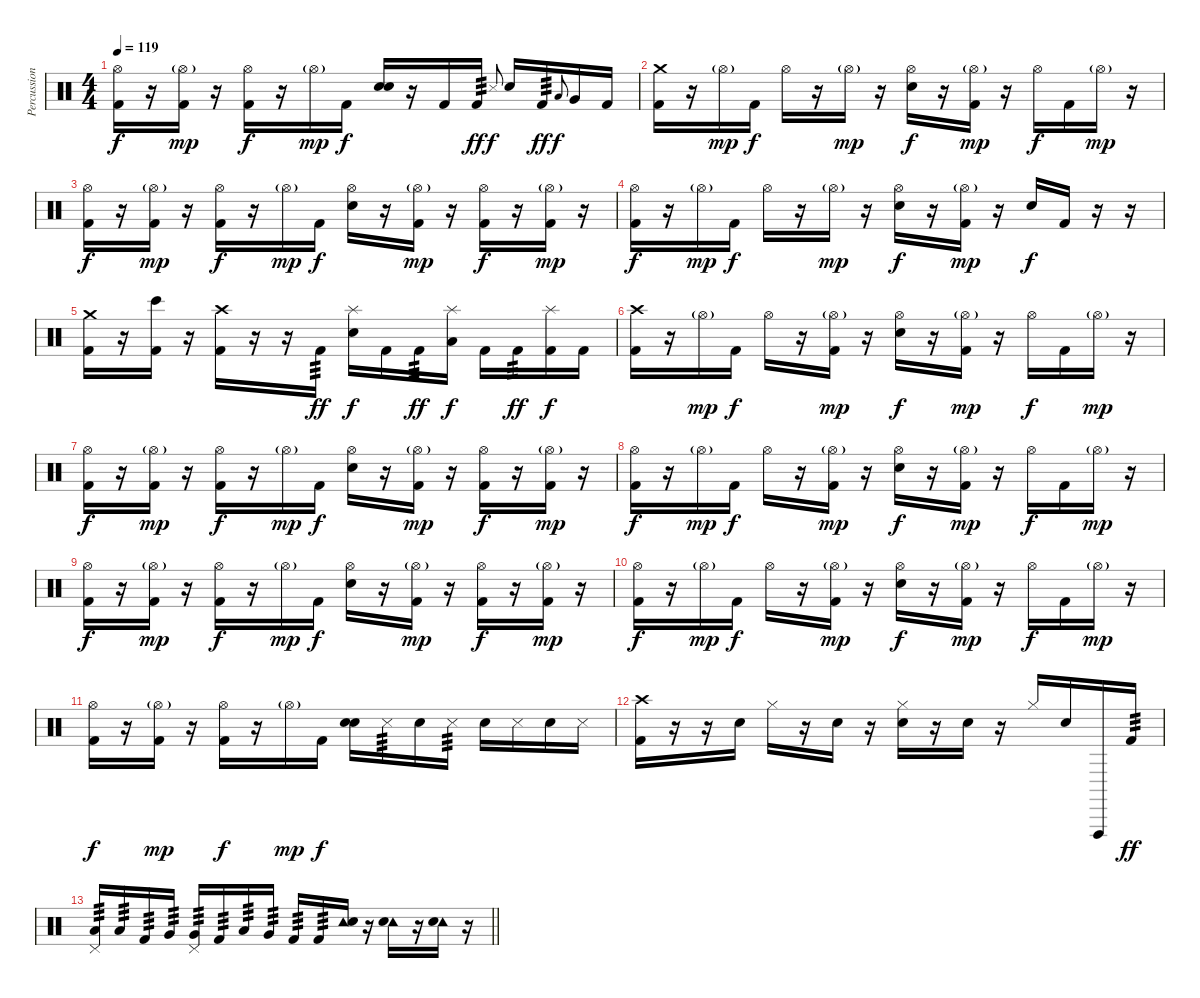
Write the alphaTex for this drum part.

\track ("Percussion" "Percussion") {instrument percussion}
\staff {score}
\articulation defaults
\ts (4 4)
\tempo 119
\clef neutral
\ks c
("Hi-Hat (open)" "Kick (hit) 2").16{dy f} r.16 ("Hi-Hat (open)"{g} "Kick (hit) 2").16{dy mp} r.16 ("Hi-Hat (open)" "Kick (hit) 2").16{dy f} r.16 "Hi-Hat (open)"{g}.16{dy mp} "Kick (hit) 2".16{dy f} ("Snare (hit)" "Snare (hit) 2").16 r.16 "Kick (hit) 2".16 "Kick (hit) 2".16{tp 3 dy ff} "Metronome (hit)".8{gr onbeat dy f} "Snare (hit) 2".16 "Kick (hit) 2".16{tp 3 dy ff} "Low Tom (hit)".8{gr onbeat dy f} "Very Low Tom (hit)".16 "Kick (hit) 2".16 |
("Crash medium (hit)" "Kick (hit) 2").16 r.16 "Hi-Hat (open)"{g}.16{dy mp} "Kick (hit) 2".16{dy f} "Hi-Hat (open)".16 r.16 "Hi-Hat (open)"{g}.16{dy mp} r.16 ("Hi-Hat (open)" "Snare (hit) 2").16{dy f} r.16 ("Hi-Hat (open)"{g} "Kick (hit) 2").16{dy mp} r.16 "Hi-Hat (open)".16{dy f} "Kick (hit) 2".16 "Hi-Hat (open)"{g}.16{dy mp} r.16 |
("Hi-Hat (open)" "Kick (hit) 2").16{dy f} r.16 ("Hi-Hat (open)"{g} "Kick (hit) 2").16{dy mp} r.16 ("Hi-Hat (open)" "Kick (hit) 2").16{dy f} r.16 "Hi-Hat (open)"{g}.16{dy mp} "Kick (hit) 2".16{dy f} ("Hi-Hat (open)" "Snare (hit) 2").16 r.16 ("Hi-Hat (open)"{g} "Kick (hit) 2").16{dy mp} r.16 ("Hi-Hat (open)" "Kick (hit) 2").16{dy f} r.16 ("Hi-Hat (open)"{g} "Kick (hit) 2").16{dy mp} r.16 |
("Hi-Hat (open)" "Kick (hit) 2").16{dy f} r.16 "Hi-Hat (open)"{g}.16{dy mp} "Kick (hit) 2".16{dy f} "Hi-Hat (open)".16 r.16 "Hi-Hat (open)"{g}.16{dy mp} r.16 ("Hi-Hat (open)" "Snare (hit) 2").16{dy f} r.16 ("Hi-Hat (open)"{g} "Kick (hit) 2").16{dy mp} r.16 "Snare (hit)".16{dy f} "Kick (hit) 2".16 r.16 r.16 |
("Crash medium (hit)" "Kick (hit) 2").16 r.16 ("Bongo High (hit)" "Kick (hit) 2").16 r.16 ("Crash high (hit)" "Kick (hit) 2").16 r.16 r.16 "Kick (hit) 2".16{tp 3 dy ff} ("Splash (hit)" "Snare (hit) 2").16{dy f} "Kick (hit) 2".16 "Kick (hit) 2".16{tp 3 dy ff} ("Splash (hit)" "Low Tom (hit)").16{dy f} "Kick (hit) 2".16 "Kick (hit) 2".16{tp 3 dy ff} ("Splash (hit)" "Kick (hit) 2").16{dy f} "Kick (hit) 2".16 |
("Crash high (hit)" "Kick (hit) 2").16 r.16 "Hi-Hat (open)"{g}.16{dy mp} "Kick (hit) 2".16{dy f} "Hi-Hat (open)".16 r.16 ("Hi-Hat (open)"{g} "Kick (hit) 2").16{dy mp} r.16 ("Hi-Hat (open)" "Snare (hit) 2").16{dy f} r.16 ("Hi-Hat (open)"{g} "Kick (hit) 2").16{dy mp} r.16 "Hi-Hat (open)".16{dy f} "Kick (hit) 2".16 "Hi-Hat (open)"{g}.16{dy mp} r.16 |
("Hi-Hat (open)" "Kick (hit) 2").16{dy f} r.16 ("Hi-Hat (open)"{g} "Kick (hit) 2").16{dy mp} r.16 ("Hi-Hat (open)" "Kick (hit) 2").16{dy f} r.16 "Hi-Hat (open)"{g}.16{dy mp} "Kick (hit) 2".16{dy f} ("Hi-Hat (open)" "Snare (hit) 2").16 r.16 ("Hi-Hat (open)"{g} "Kick (hit) 2").16{dy mp} r.16 ("Hi-Hat (open)" "Kick (hit) 2").16{dy f} r.16 ("Hi-Hat (open)"{g} "Kick (hit) 2").16{dy mp} r.16 |
("Hi-Hat (open)" "Kick (hit) 2").16{dy f} r.16 "Hi-Hat (open)"{g}.16{dy mp} "Kick (hit) 2".16{dy f} "Hi-Hat (open)".16 r.16 ("Hi-Hat (open)"{g} "Kick (hit) 2").16{dy mp} r.16 ("Hi-Hat (open)" "Snare (hit) 2").16{dy f} r.16 ("Hi-Hat (open)"{g} "Kick (hit) 2").16{dy mp} r.16 "Hi-Hat (open)".16{dy f} "Kick (hit) 2".16 "Hi-Hat (open)"{g}.16{dy mp} r.16 |
("Hi-Hat (open)" "Kick (hit) 2").16{dy f} r.16 ("Hi-Hat (open)"{g} "Kick (hit) 2").16{dy mp} r.16 ("Hi-Hat (open)" "Kick (hit) 2").16{dy f} r.16 "Hi-Hat (open)"{g}.16{dy mp} "Kick (hit) 2".16{dy f} ("Hi-Hat (open)" "Snare (hit) 2").16 r.16 ("Hi-Hat (open)"{g} "Kick (hit) 2").16{dy mp} r.16 ("Hi-Hat (open)" "Kick (hit) 2").16{dy f} r.16 ("Hi-Hat (open)"{g} "Kick (hit) 2").16{dy mp} r.16 |
("Hi-Hat (open)" "Kick (hit) 2").16{dy f} r.16 "Hi-Hat (open)"{g}.16{dy mp} "Kick (hit) 2".16{dy f} "Hi-Hat (open)".16 r.16 ("Hi-Hat (open)"{g} "Kick (hit) 2").16{dy mp} r.16 ("Hi-Hat (open)" "Snare (hit) 2").16{dy f} r.16 ("Hi-Hat (open)"{g} "Kick (hit) 2").16{dy mp} r.16 "Hi-Hat (open)".16{dy f} "Kick (hit) 2".16 "Hi-Hat (open)"{g}.16{dy mp} r.16 |
("Hi-Hat (open)" "Kick (hit) 2").16{dy f} r.16 ("Hi-Hat (open)"{g} "Kick (hit) 2").16{dy mp} r.16 ("Hi-Hat (open)" "Kick (hit) 2").16{dy f} r.16 "Hi-Hat (open)"{g}.16{dy mp} "Kick (hit) 2".16{dy f} ("Snare (hit)" "Snare (hit) 2").16 "Metronome (hit)".16{tp 3} "Snare (hit) 2".16 "Metronome (hit)".16{tp 3} "Snare (hit) 2".16 "Metronome (hit)".16 "Snare (hit) 2".16 "Metronome (hit)".16 |
("Crash high (hit)" "Kick (hit) 2").16 r.16 r.16 "Snare (hit) 2".16 "Hi-Hat (closed)".16 r.16 "Snare (hit) 2".16 r.16 ("Hi-Hat (closed)" "Snare (hit) 2").16 r.16 "Snare (hit) 2".16 r.16 "Hi-Hat (closed)".16 "Snare (hit) 2".16 "Vibraslap (hit)".16 "Kick (hit) 2".16{tp 3 dy ff} |
\barLineRight lightlight
("Pedal Hi-Hat (hit)" "Low Tom (hit)").16{tp 3} "Low Tom (hit)".16{tp 3} "Kick (hit) 2".16{tp 3} "Very Low Tom (hit)".16{tp 3} ("Pedal Hi-Hat (hit)" "Very Low Tom (hit)").16{tp 3} "Kick (hit) 2".16{tp 3} "Low Tom (hit)".16{tp 3} "Very Low Tom (hit)".16{tp 3} "Kick (hit) 2".16{tp 3} "Kick (hit) 2".16{tp 3} ("Tambourine (hit)" "Snare (hit) 2").16 r.16 ("Tambourine (hit)" "Snare (hit) 2").16 r.16 ("Tambourine (hit)" "Snare (hit) 2").16 r.16
